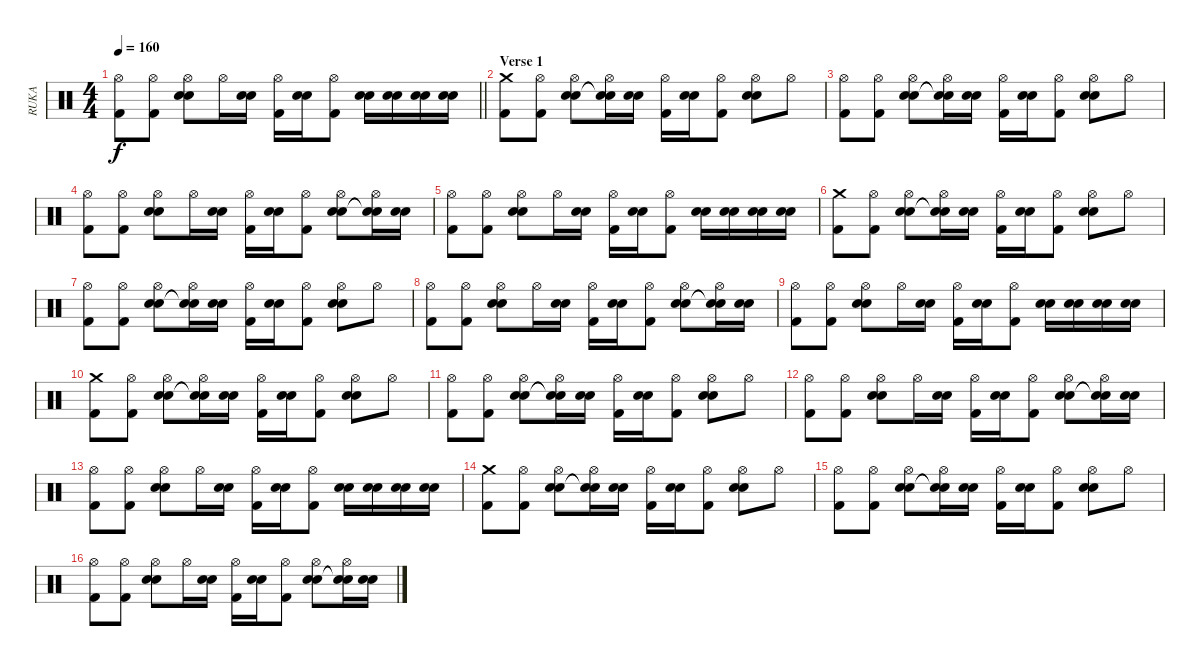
\track ("RUKA" "RUKA") {instrument percussion}
\staff {score}
\articulation defaults
\ts (4 4)
\tempo 160
\clef neutral
\barLineRight lightlight
\ks c
("Hi-Hat (open)" "Kick (hit) 2").8{dy f} ("Hi-Hat (open)" "Kick (hit) 2").8 ("Hi-Hat (open)" "Snare (hit) 2" "Electric Snare (hit)").8 "Hi-Hat (open)".16 ("Snare (hit) 2" "Electric Snare (hit)").16 ("Hi-Hat (open)" "Kick (hit) 2").16 ("Snare (hit) 2" "Electric Snare (hit)").16 ("Hi-Hat (open)" "Kick (hit) 2").8 ("Snare (hit) 2" "Electric Snare (hit)").16 ("Snare (hit) 2" "Electric Snare (hit)").16 ("Snare (hit) 2" "Electric Snare (hit)").16 ("Snare (hit) 2" "Electric Snare (hit)").16 |
\section ("" "Verse 1")
("Crash medium (hit)" "Kick (hit) 2").8 ("Hi-Hat (open)" "Kick (hit) 2").8 ("Hi-Hat (open)" "Snare (hit) 2" "Electric Snare (hit)").8 ("Hi-Hat (open)" "Snare (hit)"{t} "Snare (hit)"{t}).16 ("Snare (hit) 2" "Electric Snare (hit)").16 ("Hi-Hat (open)" "Kick (hit) 2").16 ("Snare (hit) 2" "Electric Snare (hit)").16 ("Hi-Hat (open)" "Kick (hit) 2").8 ("Hi-Hat (open)" "Snare (hit) 2" "Electric Snare (hit)").8 "Hi-Hat (open)".8 |
("Hi-Hat (open)" "Kick (hit) 2").8 ("Hi-Hat (open)" "Kick (hit) 2").8 ("Hi-Hat (open)" "Snare (hit) 2" "Electric Snare (hit)").8 ("Hi-Hat (open)" "Snare (hit)"{t} "Snare (hit)"{t}).16 ("Snare (hit) 2" "Electric Snare (hit)").16 ("Hi-Hat (open)" "Kick (hit) 2").16 ("Snare (hit) 2" "Electric Snare (hit)").16 ("Hi-Hat (open)" "Kick (hit) 2").8 ("Hi-Hat (open)" "Snare (hit) 2" "Electric Snare (hit)").8 "Hi-Hat (open)".8 |
("Hi-Hat (open)" "Kick (hit) 2").8 ("Hi-Hat (open)" "Kick (hit) 2").8 ("Hi-Hat (open)" "Snare (hit) 2" "Electric Snare (hit)").8 "Hi-Hat (open)".16 ("Snare (hit) 2" "Electric Snare (hit)").16 ("Hi-Hat (open)" "Kick (hit) 2").16 ("Snare (hit) 2" "Electric Snare (hit)").16 ("Hi-Hat (open)" "Kick (hit) 2").8 ("Hi-Hat (open)" "Snare (hit) 2" "Electric Snare (hit)").8 ("Hi-Hat (open)" "Snare (hit)"{t} "Snare (hit)"{t}).16 ("Snare (hit) 2" "Electric Snare (hit)").16 |
("Hi-Hat (open)" "Kick (hit) 2").8 ("Hi-Hat (open)" "Kick (hit) 2").8 ("Hi-Hat (open)" "Snare (hit) 2" "Electric Snare (hit)").8 "Hi-Hat (open)".16 ("Snare (hit) 2" "Electric Snare (hit)").16 ("Hi-Hat (open)" "Kick (hit) 2").16 ("Snare (hit) 2" "Electric Snare (hit)").16 ("Hi-Hat (open)" "Kick (hit) 2").8 ("Snare (hit) 2" "Electric Snare (hit)").16 ("Snare (hit) 2" "Electric Snare (hit)").16 ("Snare (hit) 2" "Electric Snare (hit)").16 ("Snare (hit) 2" "Electric Snare (hit)").16 |
("Crash medium (hit)" "Kick (hit) 2").8 ("Hi-Hat (open)" "Kick (hit) 2").8 ("Hi-Hat (open)" "Snare (hit) 2" "Electric Snare (hit)").8 ("Hi-Hat (open)" "Snare (hit)"{t} "Snare (hit)"{t}).16 ("Snare (hit) 2" "Electric Snare (hit)").16 ("Hi-Hat (open)" "Kick (hit) 2").16 ("Snare (hit) 2" "Electric Snare (hit)").16 ("Hi-Hat (open)" "Kick (hit) 2").8 ("Hi-Hat (open)" "Snare (hit) 2" "Electric Snare (hit)").8 "Hi-Hat (open)".8 |
("Hi-Hat (open)" "Kick (hit) 2").8 ("Hi-Hat (open)" "Kick (hit) 2").8 ("Hi-Hat (open)" "Snare (hit) 2" "Electric Snare (hit)").8 ("Hi-Hat (open)" "Snare (hit)"{t} "Snare (hit)"{t}).16 ("Snare (hit) 2" "Electric Snare (hit)").16 ("Hi-Hat (open)" "Kick (hit) 2").16 ("Snare (hit) 2" "Electric Snare (hit)").16 ("Hi-Hat (open)" "Kick (hit) 2").8 ("Hi-Hat (open)" "Snare (hit) 2" "Electric Snare (hit)").8 "Hi-Hat (open)".8 |
("Hi-Hat (open)" "Kick (hit) 2").8 ("Hi-Hat (open)" "Kick (hit) 2").8 ("Hi-Hat (open)" "Snare (hit) 2" "Electric Snare (hit)").8 "Hi-Hat (open)".16 ("Snare (hit) 2" "Electric Snare (hit)").16 ("Hi-Hat (open)" "Kick (hit) 2").16 ("Snare (hit) 2" "Electric Snare (hit)").16 ("Hi-Hat (open)" "Kick (hit) 2").8 ("Hi-Hat (open)" "Snare (hit) 2" "Electric Snare (hit)").8 ("Hi-Hat (open)" "Snare (hit)"{t} "Snare (hit)"{t}).16 ("Snare (hit) 2" "Electric Snare (hit)").16 |
("Hi-Hat (open)" "Kick (hit) 2").8 ("Hi-Hat (open)" "Kick (hit) 2").8 ("Hi-Hat (open)" "Snare (hit) 2" "Electric Snare (hit)").8 "Hi-Hat (open)".16 ("Snare (hit) 2" "Electric Snare (hit)").16 ("Hi-Hat (open)" "Kick (hit) 2").16 ("Snare (hit) 2" "Electric Snare (hit)").16 ("Hi-Hat (open)" "Kick (hit) 2").8 ("Snare (hit) 2" "Electric Snare (hit)").16 ("Snare (hit) 2" "Electric Snare (hit)").16 ("Snare (hit) 2" "Electric Snare (hit)").16 ("Snare (hit) 2" "Electric Snare (hit)").16 |
("Crash medium (hit)" "Kick (hit) 2").8 ("Hi-Hat (open)" "Kick (hit) 2").8 ("Hi-Hat (open)" "Snare (hit) 2" "Electric Snare (hit)").8 ("Hi-Hat (open)" "Snare (hit)"{t} "Snare (hit)"{t}).16 ("Snare (hit) 2" "Electric Snare (hit)").16 ("Hi-Hat (open)" "Kick (hit) 2").16 ("Snare (hit) 2" "Electric Snare (hit)").16 ("Hi-Hat (open)" "Kick (hit) 2").8 ("Hi-Hat (open)" "Snare (hit) 2" "Electric Snare (hit)").8 "Hi-Hat (open)".8 |
("Hi-Hat (open)" "Kick (hit) 2").8 ("Hi-Hat (open)" "Kick (hit) 2").8 ("Hi-Hat (open)" "Snare (hit) 2" "Electric Snare (hit)").8 ("Hi-Hat (open)" "Snare (hit)"{t} "Snare (hit)"{t}).16 ("Snare (hit) 2" "Electric Snare (hit)").16 ("Hi-Hat (open)" "Kick (hit) 2").16 ("Snare (hit) 2" "Electric Snare (hit)").16 ("Hi-Hat (open)" "Kick (hit) 2").8 ("Hi-Hat (open)" "Snare (hit) 2" "Electric Snare (hit)").8 "Hi-Hat (open)".8 |
("Hi-Hat (open)" "Kick (hit) 2").8 ("Hi-Hat (open)" "Kick (hit) 2").8 ("Hi-Hat (open)" "Snare (hit) 2" "Electric Snare (hit)").8 "Hi-Hat (open)".16 ("Snare (hit) 2" "Electric Snare (hit)").16 ("Hi-Hat (open)" "Kick (hit) 2").16 ("Snare (hit) 2" "Electric Snare (hit)").16 ("Hi-Hat (open)" "Kick (hit) 2").8 ("Hi-Hat (open)" "Snare (hit) 2" "Electric Snare (hit)").8 ("Hi-Hat (open)" "Snare (hit)"{t} "Snare (hit)"{t}).16 ("Snare (hit) 2" "Electric Snare (hit)").16 |
("Hi-Hat (open)" "Kick (hit) 2").8 ("Hi-Hat (open)" "Kick (hit) 2").8 ("Hi-Hat (open)" "Snare (hit) 2" "Electric Snare (hit)").8 "Hi-Hat (open)".16 ("Snare (hit) 2" "Electric Snare (hit)").16 ("Hi-Hat (open)" "Kick (hit) 2").16 ("Snare (hit) 2" "Electric Snare (hit)").16 ("Hi-Hat (open)" "Kick (hit) 2").8 ("Snare (hit) 2" "Electric Snare (hit)").16 ("Snare (hit) 2" "Electric Snare (hit)").16 ("Snare (hit) 2" "Electric Snare (hit)").16 ("Snare (hit) 2" "Electric Snare (hit)").16 |
("Crash medium (hit)" "Kick (hit) 2").8 ("Hi-Hat (open)" "Kick (hit) 2").8 ("Hi-Hat (open)" "Snare (hit) 2" "Electric Snare (hit)").8 ("Hi-Hat (open)" "Snare (hit)"{t} "Snare (hit)"{t}).16 ("Snare (hit) 2" "Electric Snare (hit)").16 ("Hi-Hat (open)" "Kick (hit) 2").16 ("Snare (hit) 2" "Electric Snare (hit)").16 ("Hi-Hat (open)" "Kick (hit) 2").8 ("Hi-Hat (open)" "Snare (hit) 2" "Electric Snare (hit)").8 "Hi-Hat (open)".8 |
("Hi-Hat (open)" "Kick (hit) 2").8 ("Hi-Hat (open)" "Kick (hit) 2").8 ("Hi-Hat (open)" "Snare (hit) 2" "Electric Snare (hit)").8 ("Hi-Hat (open)" "Snare (hit)"{t} "Snare (hit)"{t}).16 ("Snare (hit) 2" "Electric Snare (hit)").16 ("Hi-Hat (open)" "Kick (hit) 2").16 ("Snare (hit) 2" "Electric Snare (hit)").16 ("Hi-Hat (open)" "Kick (hit) 2").8 ("Hi-Hat (open)" "Snare (hit) 2" "Electric Snare (hit)").8 "Hi-Hat (open)".8 |
("Hi-Hat (open)" "Kick (hit) 2").8 ("Hi-Hat (open)" "Kick (hit) 2").8 ("Hi-Hat (open)" "Snare (hit) 2" "Electric Snare (hit)").8 "Hi-Hat (open)".16 ("Snare (hit) 2" "Electric Snare (hit)").16 ("Hi-Hat (open)" "Kick (hit) 2").16 ("Snare (hit) 2" "Electric Snare (hit)").16 ("Hi-Hat (open)" "Kick (hit) 2").8 ("Hi-Hat (open)" "Snare (hit) 2" "Electric Snare (hit)").8 ("Hi-Hat (open)" "Snare (hit)"{t} "Snare (hit)"{t}).16 ("Snare (hit) 2" "Electric Snare (hit)").16
